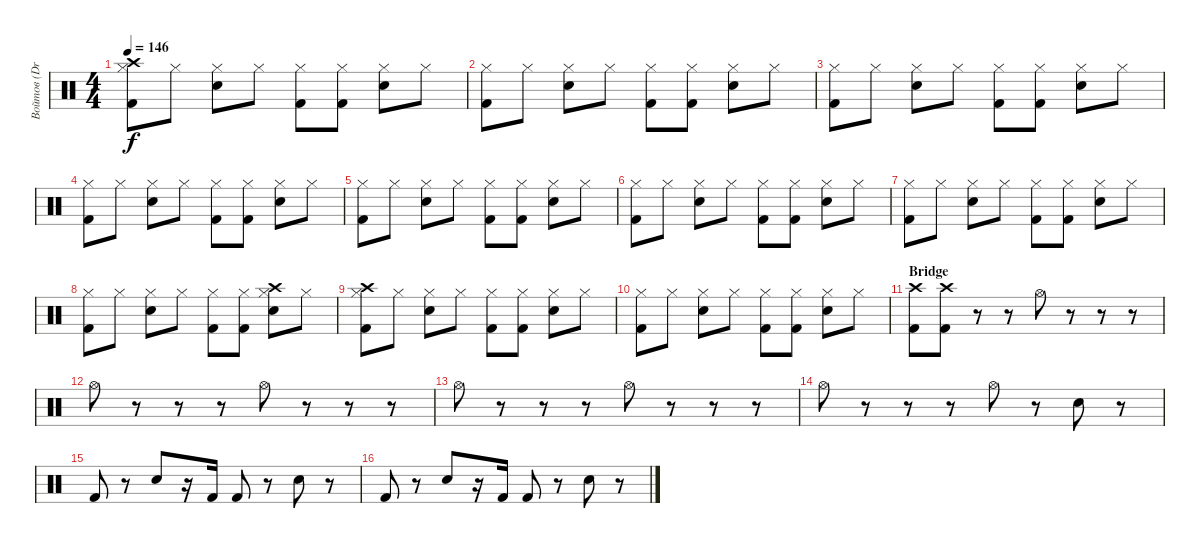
\track ("Войтов (Drums)" "Войтов (Dr") {instrument percussion}
\staff {score}
\articulation defaults
\ts (4 4)
\tempo 146
\clef neutral
\ks c
("Kick (hit) 2" "Crash high (hit)" "Hi-Hat (closed)").8{dy f} "Hi-Hat (closed)".8 ("Electric Snare (hit)" "Hi-Hat (closed)").8 "Hi-Hat (closed)".8 ("Kick (hit) 2" "Hi-Hat (closed)").8 ("Kick (hit) 2" "Hi-Hat (closed)").8 ("Electric Snare (hit)" "Hi-Hat (closed)").8 "Hi-Hat (closed)".8 |
("Kick (hit) 2" "Hi-Hat (closed)").8 "Hi-Hat (closed)".8 ("Electric Snare (hit)" "Hi-Hat (closed)").8 "Hi-Hat (closed)".8 ("Kick (hit) 2" "Hi-Hat (closed)").8 ("Kick (hit) 2" "Hi-Hat (closed)").8 ("Electric Snare (hit)" "Hi-Hat (closed)").8 "Hi-Hat (closed)".8 |
("Kick (hit) 2" "Hi-Hat (closed)").8 "Hi-Hat (closed)".8 ("Electric Snare (hit)" "Hi-Hat (closed)").8 "Hi-Hat (closed)".8 ("Kick (hit) 2" "Hi-Hat (closed)").8 ("Kick (hit) 2" "Hi-Hat (closed)").8 ("Electric Snare (hit)" "Hi-Hat (closed)").8 "Hi-Hat (closed)".8 |
("Kick (hit) 2" "Hi-Hat (closed)").8 "Hi-Hat (closed)".8 ("Electric Snare (hit)" "Hi-Hat (closed)").8 "Hi-Hat (closed)".8 ("Kick (hit) 2" "Hi-Hat (closed)").8 ("Kick (hit) 2" "Hi-Hat (closed)").8 ("Electric Snare (hit)" "Hi-Hat (closed)").8 "Hi-Hat (closed)".8 |
("Kick (hit) 2" "Hi-Hat (closed)").8 "Hi-Hat (closed)".8 ("Electric Snare (hit)" "Hi-Hat (closed)").8 "Hi-Hat (closed)".8 ("Kick (hit) 2" "Hi-Hat (closed)").8 ("Kick (hit) 2" "Hi-Hat (closed)").8 ("Electric Snare (hit)" "Hi-Hat (closed)").8 "Hi-Hat (closed)".8 |
("Kick (hit) 2" "Hi-Hat (closed)").8 "Hi-Hat (closed)".8 ("Electric Snare (hit)" "Hi-Hat (closed)").8 "Hi-Hat (closed)".8 ("Kick (hit) 2" "Hi-Hat (closed)").8 ("Kick (hit) 2" "Hi-Hat (closed)").8 ("Electric Snare (hit)" "Hi-Hat (closed)").8 "Hi-Hat (closed)".8 |
("Kick (hit) 2" "Hi-Hat (closed)").8 "Hi-Hat (closed)".8 ("Electric Snare (hit)" "Hi-Hat (closed)").8 "Hi-Hat (closed)".8 ("Kick (hit) 2" "Hi-Hat (closed)").8 ("Kick (hit) 2" "Hi-Hat (closed)").8 ("Electric Snare (hit)" "Hi-Hat (closed)").8 "Hi-Hat (closed)".8 |
("Kick (hit) 2" "Hi-Hat (closed)").8 "Hi-Hat (closed)".8 ("Electric Snare (hit)" "Hi-Hat (closed)").8 "Hi-Hat (closed)".8 ("Kick (hit) 2" "Hi-Hat (closed)").8 ("Kick (hit) 2" "Hi-Hat (closed)").8 ("Electric Snare (hit)" "Crash high (hit)" "Hi-Hat (closed)").8 "Hi-Hat (closed)".8 |
("Kick (hit) 2" "Crash high (hit)" "Hi-Hat (closed)").8 "Hi-Hat (closed)".8 ("Electric Snare (hit)" "Hi-Hat (closed)").8 "Hi-Hat (closed)".8 ("Kick (hit) 2" "Hi-Hat (closed)").8 ("Kick (hit) 2" "Hi-Hat (closed)").8 ("Electric Snare (hit)" "Hi-Hat (closed)").8 "Hi-Hat (closed)".8 |
("Kick (hit) 2" "Hi-Hat (closed)").8 "Hi-Hat (closed)".8 ("Electric Snare (hit)" "Hi-Hat (closed)").8 "Hi-Hat (closed)".8 ("Kick (hit) 2" "Hi-Hat (closed)").8 ("Kick (hit) 2" "Hi-Hat (closed)").8 ("Electric Snare (hit)" "Hi-Hat (closed)").8 "Hi-Hat (closed)".8 |
\section ("" "Bridge")
("Kick (hit) 2" "Crash high (hit)").8 ("Kick (hit) 2" "Crash high (hit)").8 r.8 r.8 "Hi-Hat (open)".8 r.8 r.8 r.8 |
"Hi-Hat (open)".8 r.8 r.8 r.8 "Hi-Hat (open)".8 r.8 r.8 r.8 |
"Hi-Hat (open)".8 r.8 r.8 r.8 "Hi-Hat (open)".8 r.8 r.8 r.8 |
"Hi-Hat (open)".8 r.8 r.8 r.8 "Hi-Hat (open)".8 r.8 "Electric Snare (hit)".8 r.8 |
"Kick (hit) 2".8 r.8 "Electric Snare (hit)".8 r.16 "Kick (hit) 2".16 "Kick (hit) 2".8 r.8 "Electric Snare (hit)".8 r.8 |
"Kick (hit) 2".8 r.8 "Electric Snare (hit)".8 r.16 "Kick (hit) 2".16 "Kick (hit) 2".8 r.8 "Electric Snare (hit)".8 r.8
